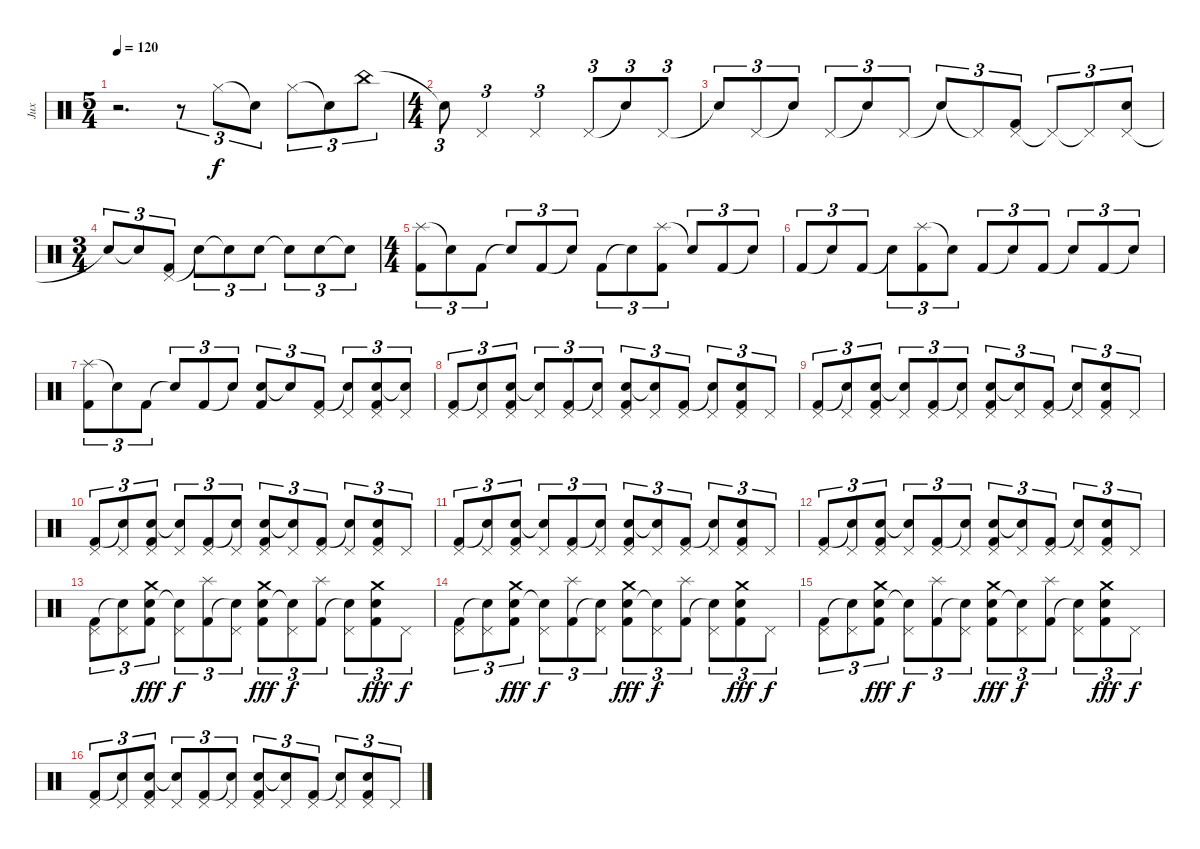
\track ("Jux" "Jux") {instrument percussion}
\staff {score}
\articulation defaults
\ts (5 4)
\tempo 120
\clef neutral
\ks c
r.2{d dy f} r.8{tu (3 2)} "Hi-Hat (closed)".8{tu (3 2)} "Snare (hit)"{t}.8{tu (3 2)} "Hi-Hat (closed)".8{tu (3 2)} "Snare (hit)"{t}.8{tu (3 2)} "China (hit)".8{tu (3 2)} |
\ts (4 4)
"Snare (hit)"{t}.8{tu (3 2)} "Pedal Hi-Hat (hit)".2{tu (3 2)} "Pedal Hi-Hat (hit)".2{tu (3 2)} "Pedal Hi-Hat (hit)".8{tu (3 2)} "Snare (hit)"{t}.8{tu (3 2)} "Pedal Hi-Hat (hit)".8{tu (3 2)} |
"Snare (hit)"{t}.8{tu (3 2)} "Pedal Hi-Hat (hit)".8{tu (3 2)} "Snare (hit)"{t}.8{tu (3 2)} "Pedal Hi-Hat (hit)".8{tu (3 2)} "Snare (hit)"{t}.8{tu (3 2)} "Pedal Hi-Hat (hit)".8{tu (3 2)} "Snare (hit)"{t}.8{tu (3 2)} "Pedal Hi-Hat (hit)"{t}.8{tu (3 2)} ("Pedal Hi-Hat (hit)" "Kick (hit) 2").8{tu (3 2)} "Pedal Hi-Hat (hit)"{t}.8{tu (3 2)} "Pedal Hi-Hat (hit)"{t}.8{tu (3 2)} ("Pedal Hi-Hat (hit)" "Electric Snare (hit)").8{tu (3 2)} |
\ts (3 4)
"Snare (hit)"{t}.8{tu (3 2)} "Snare (hit)"{t}.8{tu (3 2)} ("Pedal Hi-Hat (hit)" "Kick (hit) 2").8{tu (3 2)} "Snare (hit)"{t}.8{tu (3 2)} "Snare (hit)"{t}.8{tu (3 2)} "Electric Snare (hit)".8{tu (3 2)} "Snare (hit)"{t}.8{tu (3 2)} "Electric Snare (hit)".8{tu (3 2)} "Snare (hit)"{t}.8{tu (3 2)} |
\ts (4 4)
("Splash (hit)" "Kick (hit) 2").8{tu (3 2)} "Snare (hit)"{t}.8{tu (3 2)} "Kick (hit) 2".8{tu (3 2)} "Snare (hit)"{t}.8{tu (3 2)} "Kick (hit) 2".8{tu (3 2)} "Snare (hit)"{t}.8{tu (3 2)} "Kick (hit) 2".8{tu (3 2)} "Snare (hit)"{t}.8{tu (3 2)} ("Splash (hit)" "Kick (hit) 2").8{tu (3 2)} "Snare (hit)"{t}.8{tu (3 2)} "Kick (hit) 2".8{tu (3 2)} "Snare (hit)"{t}.8{tu (3 2)} |
"Kick (hit) 2".8{tu (3 2)} "Snare (hit)"{t}.8{tu (3 2)} "Kick (hit) 2".8{tu (3 2)} "Snare (hit)"{t}.8{tu (3 2)} ("Splash (hit)" "Kick (hit) 2").8{tu (3 2)} "Snare (hit)"{t}.8{tu (3 2)} "Kick (hit) 2".8{tu (3 2)} "Snare (hit)"{t}.8{tu (3 2)} "Kick (hit) 2".8{tu (3 2)} "Snare (hit)"{t}.8{tu (3 2)} "Kick (hit) 2".8{tu (3 2)} "Snare (hit)"{t}.8{tu (3 2)} |
("Splash (hit)" "Kick (hit) 2").8{tu (3 2)} "Snare (hit)"{t}.8{tu (3 2)} "Kick (hit) 2".8{tu (3 2)} "Snare (hit)"{t}.8{tu (3 2)} "Kick (hit) 2".8{tu (3 2)} "Snare (hit)"{t}.8{tu (3 2)} ("Electric Snare (hit)" "Kick (hit) 2").8{tu (3 2)} "Snare (hit)"{t}.8{tu (3 2)} ("Pedal Hi-Hat (hit)" "Kick (hit) 2").8{tu (3 2)} ("Pedal Hi-Hat (hit)" "Snare (hit)"{t}).8{tu (3 2)} ("Pedal Hi-Hat (hit)" "Electric Snare (hit)" "Kick (hit) 2").8{tu (3 2)} ("Pedal Hi-Hat (hit)" "Snare (hit)"{t}).8{tu (3 2)} |
("Pedal Hi-Hat (hit)" "Kick (hit) 2").8{tu (3 2)} ("Pedal Hi-Hat (hit)" "Snare (hit)"{t}).8{tu (3 2)} ("Pedal Hi-Hat (hit)" "Electric Snare (hit)" "Kick (hit) 2").8{tu (3 2)} ("Pedal Hi-Hat (hit)" "Snare (hit)"{t}).8{tu (3 2)} ("Pedal Hi-Hat (hit)" "Kick (hit) 2").8{tu (3 2)} ("Pedal Hi-Hat (hit)" "Snare (hit)"{t}).8{tu (3 2)} ("Pedal Hi-Hat (hit)" "Electric Snare (hit)" "Kick (hit) 2").8{tu (3 2)} ("Pedal Hi-Hat (hit)" "Snare (hit)"{t}).8{tu (3 2)} ("Pedal Hi-Hat (hit)" "Kick (hit) 2").8{tu (3 2)} ("Pedal Hi-Hat (hit)" "Snare (hit)"{t}).8{tu (3 2)} ("Pedal Hi-Hat (hit)" "Electric Snare (hit)" "Kick (hit) 2").8{tu (3 2)} "Pedal Hi-Hat (hit)".8{tu (3 2)} |
("Pedal Hi-Hat (hit)" "Kick (hit) 2").8{tu (3 2)} ("Pedal Hi-Hat (hit)" "Snare (hit)"{t}).8{tu (3 2)} ("Pedal Hi-Hat (hit)" "Electric Snare (hit)" "Kick (hit) 2").8{tu (3 2)} ("Pedal Hi-Hat (hit)" "Snare (hit)"{t}).8{tu (3 2)} ("Pedal Hi-Hat (hit)" "Kick (hit) 2").8{tu (3 2)} ("Pedal Hi-Hat (hit)" "Snare (hit)"{t}).8{tu (3 2)} ("Pedal Hi-Hat (hit)" "Electric Snare (hit)" "Kick (hit) 2").8{tu (3 2)} ("Pedal Hi-Hat (hit)" "Snare (hit)"{t}).8{tu (3 2)} ("Pedal Hi-Hat (hit)" "Kick (hit) 2").8{tu (3 2)} ("Pedal Hi-Hat (hit)" "Snare (hit)"{t}).8{tu (3 2)} ("Pedal Hi-Hat (hit)" "Electric Snare (hit)" "Kick (hit) 2").8{tu (3 2)} "Pedal Hi-Hat (hit)".8{tu (3 2)} |
("Pedal Hi-Hat (hit)" "Kick (hit) 2").8{tu (3 2)} ("Pedal Hi-Hat (hit)" "Snare (hit)"{t}).8{tu (3 2)} ("Pedal Hi-Hat (hit)" "Electric Snare (hit)" "Kick (hit) 2").8{tu (3 2)} ("Pedal Hi-Hat (hit)" "Snare (hit)"{t}).8{tu (3 2)} ("Pedal Hi-Hat (hit)" "Kick (hit) 2").8{tu (3 2)} ("Pedal Hi-Hat (hit)" "Snare (hit)"{t}).8{tu (3 2)} ("Pedal Hi-Hat (hit)" "Electric Snare (hit)" "Kick (hit) 2").8{tu (3 2)} ("Pedal Hi-Hat (hit)" "Snare (hit)"{t}).8{tu (3 2)} ("Pedal Hi-Hat (hit)" "Kick (hit) 2").8{tu (3 2)} ("Pedal Hi-Hat (hit)" "Snare (hit)"{t}).8{tu (3 2)} ("Pedal Hi-Hat (hit)" "Electric Snare (hit)" "Kick (hit) 2").8{tu (3 2)} "Pedal Hi-Hat (hit)".8{tu (3 2)} |
("Pedal Hi-Hat (hit)" "Kick (hit) 2").8{tu (3 2)} ("Pedal Hi-Hat (hit)" "Snare (hit)"{t}).8{tu (3 2)} ("Pedal Hi-Hat (hit)" "Electric Snare (hit)" "Kick (hit) 2").8{tu (3 2)} ("Pedal Hi-Hat (hit)" "Snare (hit)"{t}).8{tu (3 2)} ("Pedal Hi-Hat (hit)" "Kick (hit) 2").8{tu (3 2)} ("Pedal Hi-Hat (hit)" "Snare (hit)"{t}).8{tu (3 2)} ("Pedal Hi-Hat (hit)" "Electric Snare (hit)" "Kick (hit) 2").8{tu (3 2)} ("Pedal Hi-Hat (hit)" "Snare (hit)"{t}).8{tu (3 2)} ("Pedal Hi-Hat (hit)" "Kick (hit) 2").8{tu (3 2)} ("Pedal Hi-Hat (hit)" "Snare (hit)"{t}).8{tu (3 2)} ("Pedal Hi-Hat (hit)" "Electric Snare (hit)" "Kick (hit) 2").8{tu (3 2)} "Pedal Hi-Hat (hit)".8{tu (3 2)} |
("Pedal Hi-Hat (hit)" "Kick (hit) 2").8{tu (3 2)} ("Pedal Hi-Hat (hit)" "Snare (hit)"{t}).8{tu (3 2)} ("Pedal Hi-Hat (hit)" "Electric Snare (hit)" "Kick (hit) 2").8{tu (3 2)} ("Pedal Hi-Hat (hit)" "Snare (hit)"{t}).8{tu (3 2)} ("Pedal Hi-Hat (hit)" "Kick (hit) 2").8{tu (3 2)} ("Pedal Hi-Hat (hit)" "Snare (hit)"{t}).8{tu (3 2)} ("Pedal Hi-Hat (hit)" "Electric Snare (hit)" "Kick (hit) 2").8{tu (3 2)} ("Pedal Hi-Hat (hit)" "Snare (hit)"{t}).8{tu (3 2)} ("Pedal Hi-Hat (hit)" "Kick (hit) 2").8{tu (3 2)} ("Pedal Hi-Hat (hit)" "Snare (hit)"{t}).8{tu (3 2)} ("Pedal Hi-Hat (hit)" "Electric Snare (hit)" "Kick (hit) 2").8{tu (3 2)} "Pedal Hi-Hat (hit)".8{tu (3 2)} |
("Pedal Hi-Hat (hit)" "Kick (hit) 2").8{tu (3 2)} ("Pedal Hi-Hat (hit)" "Snare (hit)"{t}).8{tu (3 2)} ("Crash medium (hit)" "Electric Snare (hit)" "Kick (hit) 2").8{tu (3 2) dy fff} ("Pedal Hi-Hat (hit)" "Snare (hit)"{t}).8{tu (3 2) dy f} ("Splash (hit)" "Kick (hit) 2").8{tu (3 2)} ("Pedal Hi-Hat (hit)" "Snare (hit)"{t}).8{tu (3 2)} ("Crash medium (hit)" "Electric Snare (hit)" "Kick (hit) 2").8{tu (3 2) dy fff} ("Pedal Hi-Hat (hit)" "Snare (hit)"{t}).8{tu (3 2) dy f} ("Splash (hit)" "Kick (hit) 2").8{tu (3 2)} ("Pedal Hi-Hat (hit)" "Snare (hit)"{t}).8{tu (3 2)} ("Crash medium (hit)" "Electric Snare (hit)" "Kick (hit) 2").8{tu (3 2) dy fff} "Pedal Hi-Hat (hit)".8{tu (3 2) dy f} |
("Pedal Hi-Hat (hit)" "Kick (hit) 2").8{tu (3 2)} ("Pedal Hi-Hat (hit)" "Snare (hit)"{t}).8{tu (3 2)} ("Crash medium (hit)" "Electric Snare (hit)" "Kick (hit) 2").8{tu (3 2) dy fff} ("Pedal Hi-Hat (hit)" "Snare (hit)"{t}).8{tu (3 2) dy f} ("Splash (hit)" "Kick (hit) 2").8{tu (3 2)} ("Pedal Hi-Hat (hit)" "Snare (hit)"{t}).8{tu (3 2)} ("Crash medium (hit)" "Electric Snare (hit)" "Kick (hit) 2").8{tu (3 2) dy fff} ("Pedal Hi-Hat (hit)" "Snare (hit)"{t}).8{tu (3 2) dy f} ("Splash (hit)" "Kick (hit) 2").8{tu (3 2)} ("Pedal Hi-Hat (hit)" "Snare (hit)"{t}).8{tu (3 2)} ("Crash medium (hit)" "Electric Snare (hit)" "Kick (hit) 2").8{tu (3 2) dy fff} "Pedal Hi-Hat (hit)".8{tu (3 2) dy f} |
("Pedal Hi-Hat (hit)" "Kick (hit) 2").8{tu (3 2)} ("Pedal Hi-Hat (hit)" "Snare (hit)"{t}).8{tu (3 2)} ("Crash medium (hit)" "Electric Snare (hit)" "Kick (hit) 2").8{tu (3 2) dy fff} ("Pedal Hi-Hat (hit)" "Snare (hit)"{t}).8{tu (3 2) dy f} ("Splash (hit)" "Kick (hit) 2").8{tu (3 2)} ("Pedal Hi-Hat (hit)" "Snare (hit)"{t}).8{tu (3 2)} ("Crash medium (hit)" "Electric Snare (hit)" "Kick (hit) 2").8{tu (3 2) dy fff} ("Pedal Hi-Hat (hit)" "Snare (hit)"{t}).8{tu (3 2) dy f} ("Splash (hit)" "Kick (hit) 2").8{tu (3 2)} ("Pedal Hi-Hat (hit)" "Snare (hit)"{t}).8{tu (3 2)} ("Crash medium (hit)" "Electric Snare (hit)" "Kick (hit) 2").8{tu (3 2) dy fff} "Pedal Hi-Hat (hit)".8{tu (3 2) dy f} |
("Pedal Hi-Hat (hit)" "Kick (hit) 2").8{tu (3 2)} ("Pedal Hi-Hat (hit)" "Snare (hit)"{t}).8{tu (3 2)} ("Pedal Hi-Hat (hit)" "Electric Snare (hit)" "Kick (hit) 2").8{tu (3 2)} ("Pedal Hi-Hat (hit)" "Snare (hit)"{t}).8{tu (3 2)} ("Pedal Hi-Hat (hit)" "Kick (hit) 2").8{tu (3 2)} ("Pedal Hi-Hat (hit)" "Snare (hit)"{t}).8{tu (3 2)} ("Pedal Hi-Hat (hit)" "Electric Snare (hit)" "Kick (hit) 2").8{tu (3 2)} ("Pedal Hi-Hat (hit)" "Snare (hit)"{t}).8{tu (3 2)} ("Pedal Hi-Hat (hit)" "Kick (hit) 2").8{tu (3 2)} ("Pedal Hi-Hat (hit)" "Snare (hit)"{t}).8{tu (3 2)} ("Pedal Hi-Hat (hit)" "Electric Snare (hit)" "Kick (hit) 2").8{tu (3 2)} "Pedal Hi-Hat (hit)".8{tu (3 2)}
